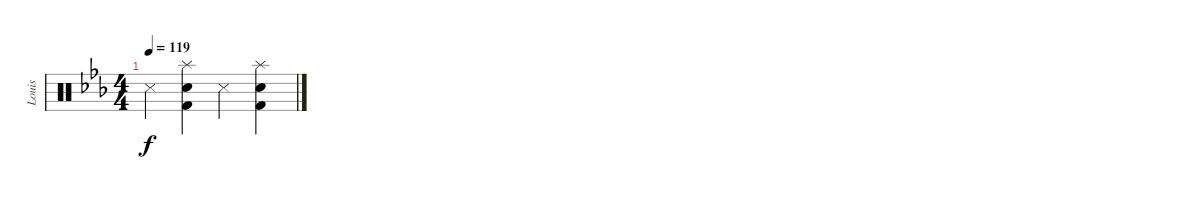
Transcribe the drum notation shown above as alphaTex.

\track ("Louis" "Louis") {instrument percussion}
\staff {score}
\articulation defaults
\ts (4 4)
\tempo 119
\clef neutral
\ks cminor "Metronome (hit)".4{dy f}
("Splash (hit)" "Kick (hit) 2" "Snare (hit) 2").4 "Metronome (hit)".4 ("Splash (hit)" "Kick (hit) 2" "Snare (hit) 2").4
